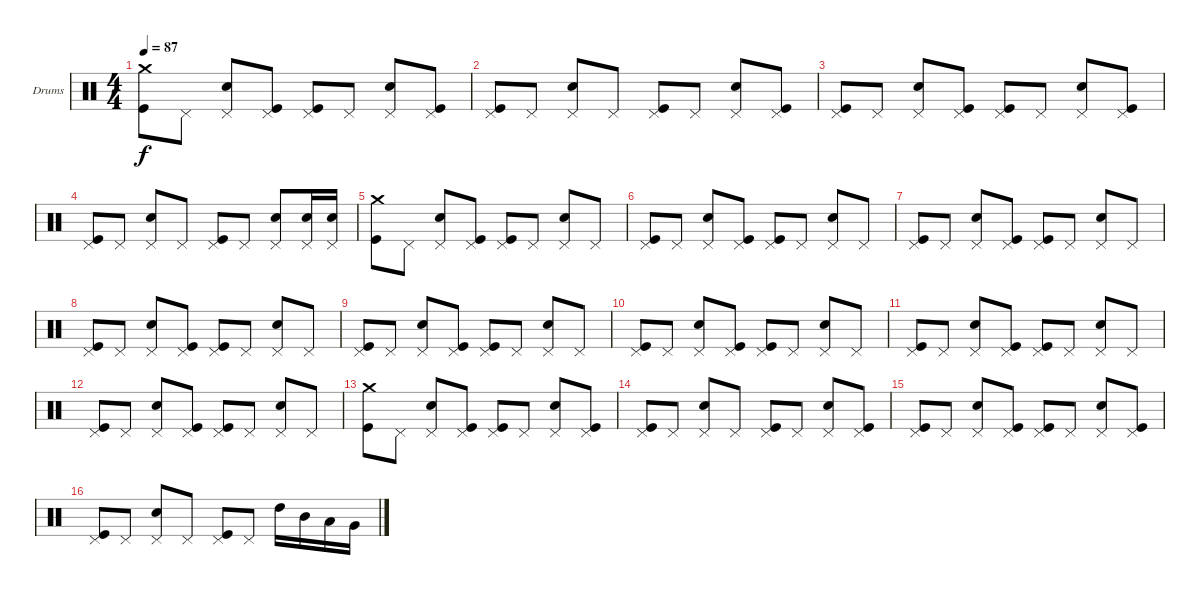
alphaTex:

\bracketExtendMode groupsimilarinstruments
\firstSystemTrackNameOrientation horizontal
\otherSystemsTrackNameOrientation horizontal
\track ("Drumkit" "Drums") {instrument percussion}
\staff {score}
\articulation defaults
\ts (4 4)
\tempo 87
\clef neutral
\ks c
("Crash medium (hit)" "Kick (hit)").8{dy f} "Pedal Hi-Hat (hit)".8 ("Pedal Hi-Hat (hit)" "Snare (hit) 2").8 ("Pedal Hi-Hat (hit)" "Kick (hit)").8 ("Pedal Hi-Hat (hit)" "Kick (hit)").8 "Pedal Hi-Hat (hit)".8 ("Pedal Hi-Hat (hit)" "Snare (hit) 2").8 ("Pedal Hi-Hat (hit)" "Kick (hit)").8 |
("Pedal Hi-Hat (hit)" "Kick (hit)").8 "Pedal Hi-Hat (hit)".8 ("Pedal Hi-Hat (hit)" "Snare (hit) 2").8 "Pedal Hi-Hat (hit)".8 ("Pedal Hi-Hat (hit)" "Kick (hit)").8 "Pedal Hi-Hat (hit)".8 ("Pedal Hi-Hat (hit)" "Snare (hit) 2").8 ("Pedal Hi-Hat (hit)" "Kick (hit)").8 |
("Pedal Hi-Hat (hit)" "Kick (hit)").8 "Pedal Hi-Hat (hit)".8 ("Pedal Hi-Hat (hit)" "Snare (hit) 2").8 ("Pedal Hi-Hat (hit)" "Kick (hit)").8 ("Pedal Hi-Hat (hit)" "Kick (hit)").8 "Pedal Hi-Hat (hit)".8 ("Pedal Hi-Hat (hit)" "Snare (hit) 2").8 ("Pedal Hi-Hat (hit)" "Kick (hit)").8 |
("Pedal Hi-Hat (hit)" "Kick (hit)").8 "Pedal Hi-Hat (hit)".8 ("Pedal Hi-Hat (hit)" "Snare (hit) 2").8 "Pedal Hi-Hat (hit)".8 ("Pedal Hi-Hat (hit)" "Kick (hit)").8 "Pedal Hi-Hat (hit)".8 ("Pedal Hi-Hat (hit)" "Snare (hit) 2").8 ("Pedal Hi-Hat (hit)" "Snare (hit) 2").16 ("Pedal Hi-Hat (hit)" "Snare (hit) 2").16 |
("Crash medium (hit)" "Kick (hit)").8 "Pedal Hi-Hat (hit)".8 ("Pedal Hi-Hat (hit)" "Snare (hit) 2").8 ("Pedal Hi-Hat (hit)" "Kick (hit)").8 ("Pedal Hi-Hat (hit)" "Kick (hit)").8 "Pedal Hi-Hat (hit)".8 ("Pedal Hi-Hat (hit)" "Snare (hit) 2").8 "Pedal Hi-Hat (hit)".8 |
("Pedal Hi-Hat (hit)" "Kick (hit)").8 "Pedal Hi-Hat (hit)".8 ("Pedal Hi-Hat (hit)" "Snare (hit) 2").8 ("Pedal Hi-Hat (hit)" "Kick (hit)").8 ("Pedal Hi-Hat (hit)" "Kick (hit)").8 "Pedal Hi-Hat (hit)".8 ("Pedal Hi-Hat (hit)" "Snare (hit) 2").8 "Pedal Hi-Hat (hit)".8 |
("Pedal Hi-Hat (hit)" "Kick (hit)").8 "Pedal Hi-Hat (hit)".8 ("Pedal Hi-Hat (hit)" "Snare (hit) 2").8 ("Pedal Hi-Hat (hit)" "Kick (hit)").8 ("Pedal Hi-Hat (hit)" "Kick (hit)").8 "Pedal Hi-Hat (hit)".8 ("Pedal Hi-Hat (hit)" "Snare (hit) 2").8 "Pedal Hi-Hat (hit)".8 |
("Pedal Hi-Hat (hit)" "Kick (hit)").8 "Pedal Hi-Hat (hit)".8 ("Pedal Hi-Hat (hit)" "Snare (hit) 2").8 ("Pedal Hi-Hat (hit)" "Kick (hit)").8 ("Pedal Hi-Hat (hit)" "Kick (hit)").8 "Pedal Hi-Hat (hit)".8 ("Pedal Hi-Hat (hit)" "Snare (hit) 2").8 "Pedal Hi-Hat (hit)".8 |
("Pedal Hi-Hat (hit)" "Kick (hit)").8 "Pedal Hi-Hat (hit)".8 ("Pedal Hi-Hat (hit)" "Snare (hit) 2").8 ("Pedal Hi-Hat (hit)" "Kick (hit)").8 ("Pedal Hi-Hat (hit)" "Kick (hit)").8 "Pedal Hi-Hat (hit)".8 ("Pedal Hi-Hat (hit)" "Snare (hit) 2").8 "Pedal Hi-Hat (hit)".8 |
("Pedal Hi-Hat (hit)" "Kick (hit)").8 "Pedal Hi-Hat (hit)".8 ("Pedal Hi-Hat (hit)" "Snare (hit) 2").8 ("Pedal Hi-Hat (hit)" "Kick (hit)").8 ("Pedal Hi-Hat (hit)" "Kick (hit)").8 "Pedal Hi-Hat (hit)".8 ("Pedal Hi-Hat (hit)" "Snare (hit) 2").8 "Pedal Hi-Hat (hit)".8 |
("Pedal Hi-Hat (hit)" "Kick (hit)").8 "Pedal Hi-Hat (hit)".8 ("Pedal Hi-Hat (hit)" "Snare (hit) 2").8 ("Pedal Hi-Hat (hit)" "Kick (hit)").8 ("Pedal Hi-Hat (hit)" "Kick (hit)").8 "Pedal Hi-Hat (hit)".8 ("Pedal Hi-Hat (hit)" "Snare (hit) 2").8 "Pedal Hi-Hat (hit)".8 |
("Pedal Hi-Hat (hit)" "Kick (hit)").8 "Pedal Hi-Hat (hit)".8 ("Pedal Hi-Hat (hit)" "Snare (hit) 2").8 ("Pedal Hi-Hat (hit)" "Kick (hit)").8 ("Pedal Hi-Hat (hit)" "Kick (hit)").8 "Pedal Hi-Hat (hit)".8 ("Pedal Hi-Hat (hit)" "Snare (hit) 2").8 "Pedal Hi-Hat (hit)".8 |
("Crash medium (hit)" "Kick (hit)").8 "Pedal Hi-Hat (hit)".8 ("Pedal Hi-Hat (hit)" "Snare (hit) 2").8 ("Pedal Hi-Hat (hit)" "Kick (hit)").8 ("Pedal Hi-Hat (hit)" "Kick (hit)").8 "Pedal Hi-Hat (hit)".8 ("Pedal Hi-Hat (hit)" "Snare (hit) 2").8 ("Pedal Hi-Hat (hit)" "Kick (hit)").8 |
("Pedal Hi-Hat (hit)" "Kick (hit)").8 "Pedal Hi-Hat (hit)".8 ("Pedal Hi-Hat (hit)" "Snare (hit) 2").8 "Pedal Hi-Hat (hit)".8 ("Pedal Hi-Hat (hit)" "Kick (hit)").8 "Pedal Hi-Hat (hit)".8 ("Pedal Hi-Hat (hit)" "Snare (hit) 2").8 ("Pedal Hi-Hat (hit)" "Kick (hit)").8 |
("Pedal Hi-Hat (hit)" "Kick (hit)").8 "Pedal Hi-Hat (hit)".8 ("Pedal Hi-Hat (hit)" "Snare (hit) 2").8 ("Pedal Hi-Hat (hit)" "Kick (hit)").8 ("Pedal Hi-Hat (hit)" "Kick (hit)").8 "Pedal Hi-Hat (hit)".8 ("Pedal Hi-Hat (hit)" "Snare (hit) 2").8 ("Pedal Hi-Hat (hit)" "Kick (hit)").8 |
("Pedal Hi-Hat (hit)" "Kick (hit)").8 "Pedal Hi-Hat (hit)".8 ("Pedal Hi-Hat (hit)" "Snare (hit) 2").8 "Pedal Hi-Hat (hit)".8 ("Pedal Hi-Hat (hit)" "Kick (hit)").8 "Pedal Hi-Hat (hit)".8 "High Tom (hit)".16 "Mid Tom (hit)".16 "Low Tom (hit)".16 "Very Low Tom (hit)".16
